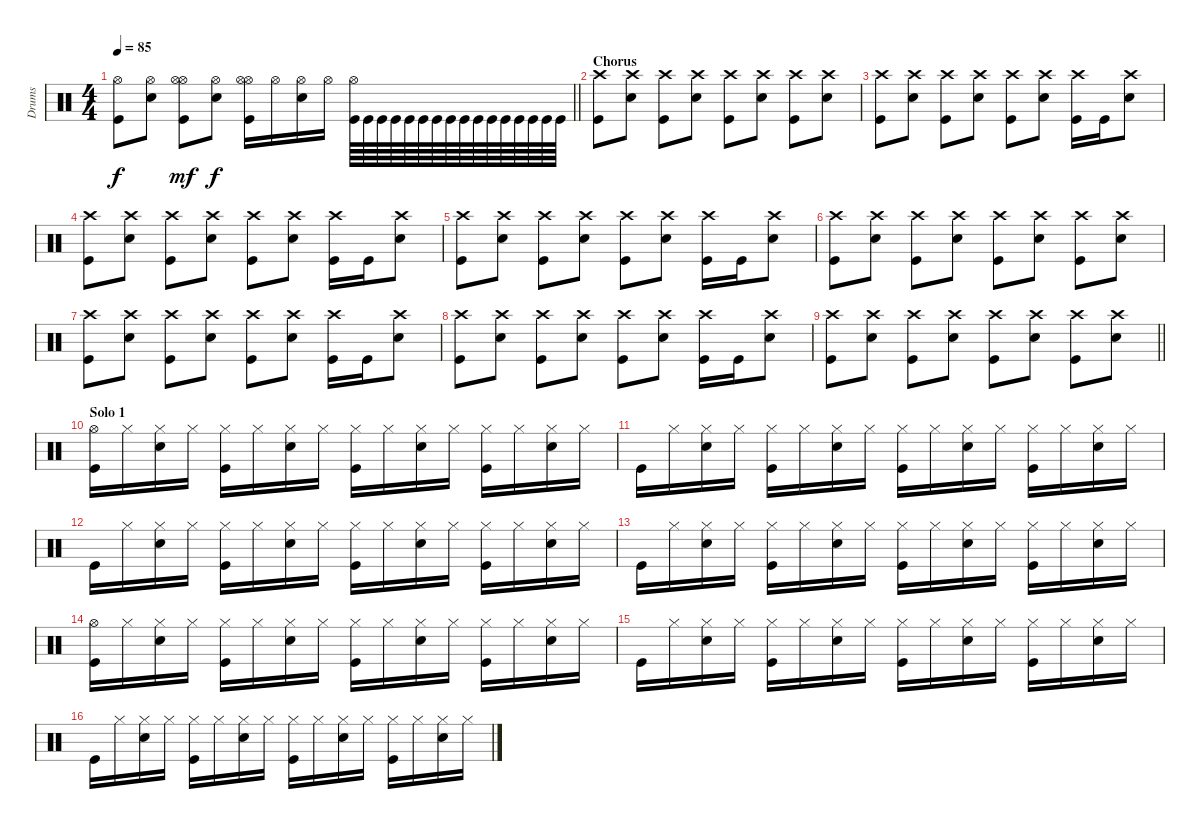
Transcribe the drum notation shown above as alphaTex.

\track ("Drums" "Drums") {instrument percussion}
\staff {score}
\articulation defaults
\ts (4 4)
\tempo 85
\clef neutral
\barLineRight lightlight
\ks c
("Hi-Hat (open)" "Kick (hit)").8{dy f} ("Hi-Hat (open)" "Electric Snare (hit)").8 ("Hi-Hat (open)" "Kick (hit)" "Hi-Hat (open)").8{dy mf} ("Hi-Hat (open)" "Electric Snare (hit)").8{dy f} ("Hi-Hat (open)" "Kick (hit)" "Hi-Hat (open)").16 "Hi-Hat (open)".16 ("Hi-Hat (open)" "Electric Snare (hit)").16 "Hi-Hat (open)".16 ("Hi-Hat (open)" "Kick (hit)").64 "Kick (hit)".64 "Kick (hit)".64 "Kick (hit)".64 "Kick (hit)".64 "Kick (hit)".64 "Kick (hit)".64 "Kick (hit)".64 "Kick (hit)".64 "Kick (hit)".64 "Kick (hit)".64 "Kick (hit)".64 "Kick (hit)".64 "Kick (hit)".64 "Kick (hit)".64 "Kick (hit)".64 |
\section ("" "Chorus")
("Kick (hit)" "Crash high (hit)").8 ("Electric Snare (hit)" "Crash high (hit)").8 ("Kick (hit)" "Crash high (hit)").8 ("Electric Snare (hit)" "Crash high (hit)").8 ("Kick (hit)" "Crash high (hit)").8 ("Electric Snare (hit)" "Crash high (hit)").8 ("Kick (hit)" "Crash high (hit)").8 ("Electric Snare (hit)" "Crash high (hit)").8 |
("Kick (hit)" "Crash high (hit)").8 ("Electric Snare (hit)" "Crash high (hit)").8 ("Kick (hit)" "Crash high (hit)").8 ("Electric Snare (hit)" "Crash high (hit)").8 ("Kick (hit)" "Crash high (hit)").8 ("Electric Snare (hit)" "Crash high (hit)").8 ("Kick (hit)" "Crash high (hit)").16 "Kick (hit)".16 ("Electric Snare (hit)" "Crash high (hit)").8 |
("Kick (hit)" "Crash high (hit)").8 ("Electric Snare (hit)" "Crash high (hit)").8 ("Kick (hit)" "Crash high (hit)").8 ("Electric Snare (hit)" "Crash high (hit)").8 ("Kick (hit)" "Crash high (hit)").8 ("Electric Snare (hit)" "Crash high (hit)").8 ("Kick (hit)" "Crash high (hit)").16 "Kick (hit)".16 ("Electric Snare (hit)" "Crash high (hit)").8 |
("Kick (hit)" "Crash high (hit)").8 ("Electric Snare (hit)" "Crash high (hit)").8 ("Kick (hit)" "Crash high (hit)").8 ("Electric Snare (hit)" "Crash high (hit)").8 ("Kick (hit)" "Crash high (hit)").8 ("Electric Snare (hit)" "Crash high (hit)").8 ("Kick (hit)" "Crash high (hit)").16 "Kick (hit)".16 ("Electric Snare (hit)" "Crash high (hit)").8 |
("Kick (hit)" "Crash high (hit)").8 ("Electric Snare (hit)" "Crash high (hit)").8 ("Kick (hit)" "Crash high (hit)").8 ("Electric Snare (hit)" "Crash high (hit)").8 ("Kick (hit)" "Crash high (hit)").8 ("Electric Snare (hit)" "Crash high (hit)").8 ("Kick (hit)" "Crash high (hit)").8 ("Electric Snare (hit)" "Crash high (hit)").8 |
("Kick (hit)" "Crash high (hit)").8 ("Electric Snare (hit)" "Crash high (hit)").8 ("Kick (hit)" "Crash high (hit)").8 ("Electric Snare (hit)" "Crash high (hit)").8 ("Kick (hit)" "Crash high (hit)").8 ("Electric Snare (hit)" "Crash high (hit)").8 ("Kick (hit)" "Crash high (hit)").16 "Kick (hit)".16 ("Electric Snare (hit)" "Crash high (hit)").8 |
("Kick (hit)" "Crash high (hit)").8 ("Electric Snare (hit)" "Crash high (hit)").8 ("Kick (hit)" "Crash high (hit)").8 ("Electric Snare (hit)" "Crash high (hit)").8 ("Kick (hit)" "Crash high (hit)").8 ("Electric Snare (hit)" "Crash high (hit)").8 ("Kick (hit)" "Crash high (hit)").16 "Kick (hit)".16 ("Electric Snare (hit)" "Crash high (hit)").8 |
\barLineRight lightlight
("Kick (hit)" "Crash high (hit)").8 ("Electric Snare (hit)" "Crash high (hit)").8 ("Kick (hit)" "Crash high (hit)").8 ("Electric Snare (hit)" "Crash high (hit)").8 ("Kick (hit)" "Crash high (hit)").8 ("Electric Snare (hit)" "Crash high (hit)").8 ("Kick (hit)" "Crash high (hit)").8 ("Electric Snare (hit)" "Crash high (hit)").8 |
\section ("" "Solo 1")
("Kick (hit)" "Hi-Hat (open)").16 "Hi-Hat (closed)".16 ("Hi-Hat (closed)" "Electric Snare (hit)").16 "Hi-Hat (closed)".16 ("Hi-Hat (closed)" "Kick (hit)").16 "Hi-Hat (closed)".16 ("Hi-Hat (closed)" "Electric Snare (hit)").16 "Hi-Hat (closed)".16 ("Hi-Hat (closed)" "Kick (hit)").16 "Hi-Hat (closed)".16 ("Hi-Hat (closed)" "Electric Snare (hit)").16 "Hi-Hat (closed)".16 ("Hi-Hat (closed)" "Kick (hit)").16 "Hi-Hat (closed)".16 ("Hi-Hat (closed)" "Electric Snare (hit)").16 "Hi-Hat (closed)".16 |
"Kick (hit)".16 "Hi-Hat (closed)".16 ("Hi-Hat (closed)" "Electric Snare (hit)").16 "Hi-Hat (closed)".16 ("Hi-Hat (closed)" "Kick (hit)").16 "Hi-Hat (closed)".16 ("Hi-Hat (closed)" "Electric Snare (hit)").16 "Hi-Hat (closed)".16 ("Hi-Hat (closed)" "Kick (hit)").16 "Hi-Hat (closed)".16 ("Hi-Hat (closed)" "Electric Snare (hit)").16 "Hi-Hat (closed)".16 ("Hi-Hat (closed)" "Kick (hit)").16 "Hi-Hat (closed)".16 ("Hi-Hat (closed)" "Electric Snare (hit)").16 "Hi-Hat (closed)".16 |
"Kick (hit)".16 "Hi-Hat (closed)".16 ("Hi-Hat (closed)" "Electric Snare (hit)").16 "Hi-Hat (closed)".16 ("Hi-Hat (closed)" "Kick (hit)").16 "Hi-Hat (closed)".16 ("Hi-Hat (closed)" "Electric Snare (hit)").16 "Hi-Hat (closed)".16 ("Hi-Hat (closed)" "Kick (hit)").16 "Hi-Hat (closed)".16 ("Hi-Hat (closed)" "Electric Snare (hit)").16 "Hi-Hat (closed)".16 ("Hi-Hat (closed)" "Kick (hit)").16 "Hi-Hat (closed)".16 ("Hi-Hat (closed)" "Electric Snare (hit)").16 "Hi-Hat (closed)".16 |
"Kick (hit)".16 "Hi-Hat (closed)".16 ("Hi-Hat (closed)" "Electric Snare (hit)").16 "Hi-Hat (closed)".16 ("Hi-Hat (closed)" "Kick (hit)").16 "Hi-Hat (closed)".16 ("Hi-Hat (closed)" "Electric Snare (hit)").16 "Hi-Hat (closed)".16 ("Hi-Hat (closed)" "Kick (hit)").16 "Hi-Hat (closed)".16 ("Hi-Hat (closed)" "Electric Snare (hit)").16 "Hi-Hat (closed)".16 ("Hi-Hat (closed)" "Kick (hit)").16 "Hi-Hat (closed)".16 ("Hi-Hat (closed)" "Electric Snare (hit)").16 "Hi-Hat (closed)".16 |
("Kick (hit)" "Hi-Hat (open)").16 "Hi-Hat (closed)".16 ("Hi-Hat (closed)" "Electric Snare (hit)").16 "Hi-Hat (closed)".16 ("Hi-Hat (closed)" "Kick (hit)").16 "Hi-Hat (closed)".16 ("Hi-Hat (closed)" "Electric Snare (hit)").16 "Hi-Hat (closed)".16 ("Hi-Hat (closed)" "Kick (hit)").16 "Hi-Hat (closed)".16 ("Hi-Hat (closed)" "Electric Snare (hit)").16 "Hi-Hat (closed)".16 ("Hi-Hat (closed)" "Kick (hit)").16 "Hi-Hat (closed)".16 ("Hi-Hat (closed)" "Electric Snare (hit)").16 "Hi-Hat (closed)".16 |
"Kick (hit)".16 "Hi-Hat (closed)".16 ("Hi-Hat (closed)" "Electric Snare (hit)").16 "Hi-Hat (closed)".16 ("Hi-Hat (closed)" "Kick (hit)").16 "Hi-Hat (closed)".16 ("Hi-Hat (closed)" "Electric Snare (hit)").16 "Hi-Hat (closed)".16 ("Hi-Hat (closed)" "Kick (hit)").16 "Hi-Hat (closed)".16 ("Hi-Hat (closed)" "Electric Snare (hit)").16 "Hi-Hat (closed)".16 ("Hi-Hat (closed)" "Kick (hit)").16 "Hi-Hat (closed)".16 ("Hi-Hat (closed)" "Electric Snare (hit)").16 "Hi-Hat (closed)".16 |
"Kick (hit)".16 "Hi-Hat (closed)".16 ("Hi-Hat (closed)" "Electric Snare (hit)").16 "Hi-Hat (closed)".16 ("Hi-Hat (closed)" "Kick (hit)").16 "Hi-Hat (closed)".16 ("Hi-Hat (closed)" "Electric Snare (hit)").16 "Hi-Hat (closed)".16 ("Hi-Hat (closed)" "Kick (hit)").16 "Hi-Hat (closed)".16 ("Hi-Hat (closed)" "Electric Snare (hit)").16 "Hi-Hat (closed)".16 ("Hi-Hat (closed)" "Kick (hit)").16 "Hi-Hat (closed)".16 ("Hi-Hat (closed)" "Electric Snare (hit)").16 "Hi-Hat (closed)".16
